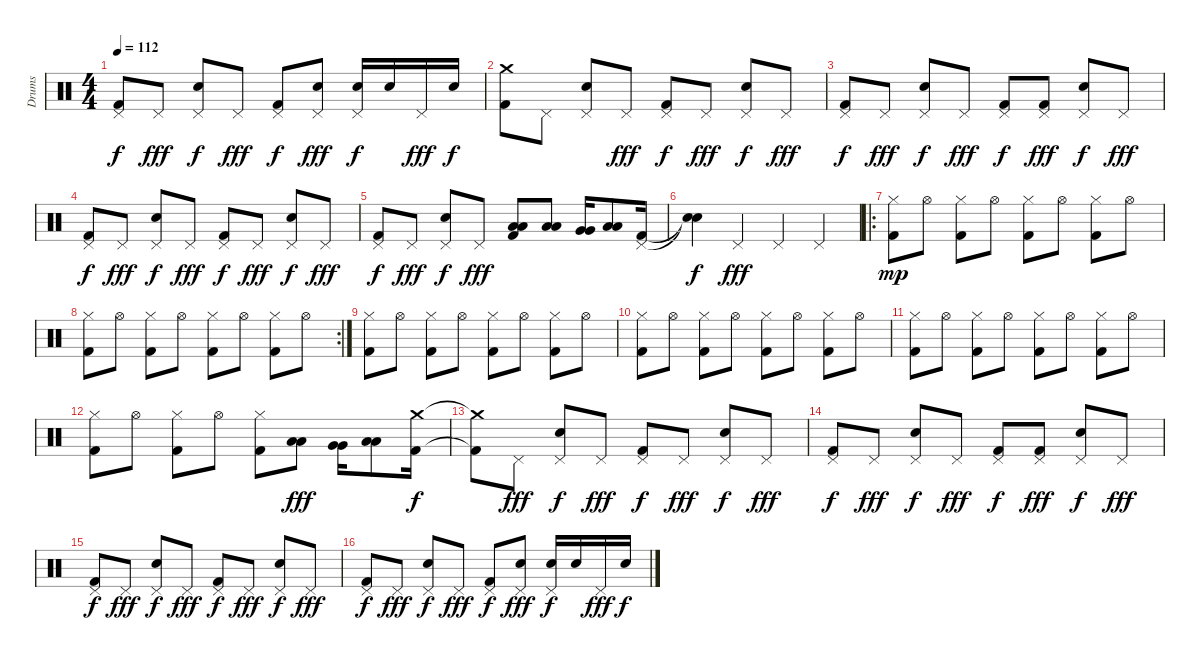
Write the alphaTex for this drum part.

\track ("Drums" "Drums") {instrument percussion}
\staff {score}
\articulation defaults
\ts (4 4)
\tempo 112
\clef neutral
\ks c
("Kick (hit) 2" "Pedal Hi-Hat (hit)").8{dy f} "Pedal Hi-Hat (hit)".8{dy fff} ("Pedal Hi-Hat (hit)" "Snare (hit) 2").8{dy f} "Pedal Hi-Hat (hit)".8{dy fff} ("Kick (hit) 2" "Pedal Hi-Hat (hit)").8{dy f} ("Pedal Hi-Hat (hit)" "Snare (hit) 2").8{dy fff} ("Pedal Hi-Hat (hit)" "Snare (hit) 2").16{dy f} "Snare (hit) 2".16 "Pedal Hi-Hat (hit)".16{dy fff} "Snare (hit) 2".16{dy f} |
("Kick (hit) 2" "Crash medium (hit)").8 "Pedal Hi-Hat (hit)".8 ("Pedal Hi-Hat (hit)" "Snare (hit) 2").8 "Pedal Hi-Hat (hit)".8{dy fff} ("Kick (hit) 2" "Pedal Hi-Hat (hit)").8{dy f} "Pedal Hi-Hat (hit)".8{dy fff} ("Pedal Hi-Hat (hit)" "Snare (hit) 2").8{dy f} "Pedal Hi-Hat (hit)".8{dy fff} |
("Kick (hit) 2" "Pedal Hi-Hat (hit)").8{dy f} "Pedal Hi-Hat (hit)".8{dy fff} ("Pedal Hi-Hat (hit)" "Snare (hit) 2").8{dy f} "Pedal Hi-Hat (hit)".8{dy fff} ("Kick (hit) 2" "Pedal Hi-Hat (hit)").8{dy f} ("Kick (hit) 2" "Pedal Hi-Hat (hit)").8{dy fff} ("Pedal Hi-Hat (hit)" "Snare (hit) 2").8{dy f} "Pedal Hi-Hat (hit)".8{dy fff} |
("Kick (hit) 2" "Pedal Hi-Hat (hit)").8{dy f} "Pedal Hi-Hat (hit)".8{dy fff} ("Pedal Hi-Hat (hit)" "Snare (hit) 2").8{dy f} "Pedal Hi-Hat (hit)".8{dy fff} ("Kick (hit) 2" "Pedal Hi-Hat (hit)").8{dy f} "Pedal Hi-Hat (hit)".8{dy fff} ("Pedal Hi-Hat (hit)" "Snare (hit) 2").8{dy f} "Pedal Hi-Hat (hit)".8{dy fff} |
("Kick (hit) 2" "Pedal Hi-Hat (hit)").8{dy f} "Pedal Hi-Hat (hit)".8{dy fff} ("Pedal Hi-Hat (hit)" "Snare (hit) 2").8{dy f} "Pedal Hi-Hat (hit)".8{dy fff} ("Kick (hit) 2" "Low Tom (hit)" "Low Tom (hit)").8 ("Low Tom (hit)" "Low Tom (hit)").8 ("Very Low Tom (hit)" "Very Low Tom (hit)").16 ("Low Floor Tom (hit)" "Low Floor Tom (hit)").8 ("Kick (hit) 2" "Pedal Hi-Hat (hit)").16 |
("Snare (hit)"{t} "Snare (hit)"{t}).4{dy f} "Pedal Hi-Hat (hit)".4{dy fff} "Pedal Hi-Hat (hit)".4 "Pedal Hi-Hat (hit)".4 |
\ro
("Kick (hit) 2" "Hi-Hat (closed)").8{dy mp} "Hi-Hat (open)".8 ("Kick (hit) 2" "Hi-Hat (closed)").8 "Hi-Hat (open)".8 ("Kick (hit) 2" "Hi-Hat (closed)").8 "Hi-Hat (open)".8 ("Kick (hit) 2" "Hi-Hat (closed)").8 "Hi-Hat (open)".8 |
\rc 2
("Kick (hit) 2" "Hi-Hat (closed)").8 "Hi-Hat (open)".8 ("Kick (hit) 2" "Hi-Hat (closed)").8 "Hi-Hat (open)".8 ("Kick (hit) 2" "Hi-Hat (closed)").8 "Hi-Hat (open)".8 ("Kick (hit) 2" "Hi-Hat (closed)").8 "Hi-Hat (open)".8 |
("Kick (hit) 2" "Hi-Hat (closed)").8 "Hi-Hat (open)".8 ("Kick (hit) 2" "Hi-Hat (closed)").8 "Hi-Hat (open)".8 ("Kick (hit) 2" "Hi-Hat (closed)").8 "Hi-Hat (open)".8 ("Kick (hit) 2" "Hi-Hat (closed)").8 "Hi-Hat (open)".8 |
("Kick (hit) 2" "Hi-Hat (closed)").8 "Hi-Hat (open)".8 ("Kick (hit) 2" "Hi-Hat (closed)").8 "Hi-Hat (open)".8 ("Kick (hit) 2" "Hi-Hat (closed)").8 "Hi-Hat (open)".8 ("Kick (hit) 2" "Hi-Hat (closed)").8 "Hi-Hat (open)".8 |
("Kick (hit) 2" "Hi-Hat (closed)").8 "Hi-Hat (open)".8 ("Kick (hit) 2" "Hi-Hat (closed)").8 "Hi-Hat (open)".8 ("Kick (hit) 2" "Hi-Hat (closed)").8 "Hi-Hat (open)".8 ("Kick (hit) 2" "Hi-Hat (closed)").8 "Hi-Hat (open)".8 |
("Kick (hit) 2" "Hi-Hat (closed)").8 "Hi-Hat (open)".8 ("Kick (hit) 2" "Hi-Hat (closed)").8 "Hi-Hat (open)".8 ("Kick (hit) 2" "Hi-Hat (closed)").8 ("Low Tom (hit)" "Low Tom (hit)").8{dy fff} ("Very Low Tom (hit)" "Very Low Tom (hit)").16 ("Low Floor Tom (hit)" "Low Floor Tom (hit)").8 ("Kick (hit) 2" "Crash medium (hit)").16{dy f} |
("Kick (hit) 2"{t} "Crash medium (hit)"{t}).8 "Pedal Hi-Hat (hit)".8{dy fff} ("Pedal Hi-Hat (hit)" "Snare (hit) 2").8{dy f} "Pedal Hi-Hat (hit)".8{dy fff} ("Kick (hit) 2" "Pedal Hi-Hat (hit)").8{dy f} "Pedal Hi-Hat (hit)".8{dy fff} ("Pedal Hi-Hat (hit)" "Snare (hit) 2").8{dy f} "Pedal Hi-Hat (hit)".8{dy fff} |
("Kick (hit) 2" "Pedal Hi-Hat (hit)").8{dy f} "Pedal Hi-Hat (hit)".8{dy fff} ("Pedal Hi-Hat (hit)" "Snare (hit) 2").8{dy f} "Pedal Hi-Hat (hit)".8{dy fff} ("Kick (hit) 2" "Pedal Hi-Hat (hit)").8{dy f} ("Kick (hit) 2" "Pedal Hi-Hat (hit)").8{dy fff} ("Pedal Hi-Hat (hit)" "Snare (hit) 2").8{dy f} "Pedal Hi-Hat (hit)".8{dy fff} |
("Kick (hit) 2" "Pedal Hi-Hat (hit)").8{dy f} "Pedal Hi-Hat (hit)".8{dy fff} ("Pedal Hi-Hat (hit)" "Snare (hit) 2").8{dy f} "Pedal Hi-Hat (hit)".8{dy fff} ("Kick (hit) 2" "Pedal Hi-Hat (hit)").8{dy f} "Pedal Hi-Hat (hit)".8{dy fff} ("Pedal Hi-Hat (hit)" "Snare (hit) 2").8{dy f} "Pedal Hi-Hat (hit)".8{dy fff} |
("Kick (hit) 2" "Pedal Hi-Hat (hit)").8{dy f} "Pedal Hi-Hat (hit)".8{dy fff} ("Pedal Hi-Hat (hit)" "Snare (hit) 2").8{dy f} "Pedal Hi-Hat (hit)".8{dy fff} ("Kick (hit) 2" "Pedal Hi-Hat (hit)").8{dy f} ("Pedal Hi-Hat (hit)" "Snare (hit) 2").8{dy fff} ("Pedal Hi-Hat (hit)" "Snare (hit) 2").16{dy f} "Snare (hit) 2".16 "Pedal Hi-Hat (hit)".16{dy fff} "Snare (hit) 2".16{dy f}
